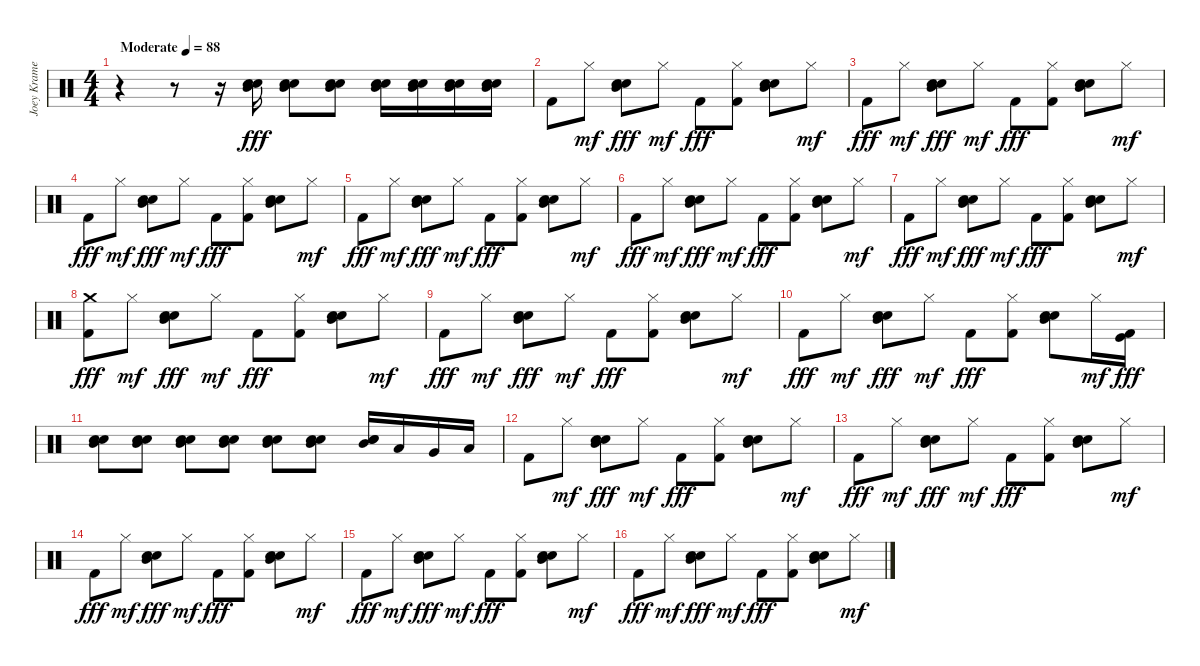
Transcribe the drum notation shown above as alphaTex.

\track ("Joey Kramer" "Joey Krame") {instrument percussion}
\staff {score}
\articulation defaults
\ts (4 4)
\tempo (88 "Moderate")
\clef neutral
\ks c
r.4{dy fff} r.8 r.16 ("Snare (hit) 2" "Electric Snare (hit)" "Mid Tom (hit)").16 ("Snare (hit) 2" "Electric Snare (hit)" "Mid Tom (hit)").8 ("Snare (hit) 2" "Electric Snare (hit)" "Mid Tom (hit)").8 ("Snare (hit) 2" "Electric Snare (hit)" "Mid Tom (hit)").16 ("Snare (hit) 2" "Electric Snare (hit)" "Mid Tom (hit)").16 ("Snare (hit) 2" "Electric Snare (hit)" "Mid Tom (hit)").16 ("Snare (hit) 2" "Electric Snare (hit)" "Mid Tom (hit)").16 |
"Kick (hit) 2".8 "Hi-Hat (closed)".8{dy mf} ("Snare (hit) 2" "Electric Snare (hit)" "Mid Tom (hit)").8{dy fff} "Hi-Hat (closed)".8{dy mf} "Kick (hit) 2".8{dy fff} ("Hi-Hat (closed)" "Kick (hit) 2").8 ("Snare (hit) 2" "Electric Snare (hit)" "Mid Tom (hit)").8 "Hi-Hat (closed)".8{dy mf} |
"Kick (hit) 2".8{dy fff} "Hi-Hat (closed)".8{dy mf} ("Snare (hit) 2" "Electric Snare (hit)" "Mid Tom (hit)").8{dy fff} "Hi-Hat (closed)".8{dy mf} "Kick (hit) 2".8{dy fff} ("Hi-Hat (closed)" "Kick (hit) 2").8 ("Snare (hit) 2" "Electric Snare (hit)" "Mid Tom (hit)").8 "Hi-Hat (closed)".8{dy mf} |
"Kick (hit) 2".8{dy fff} "Hi-Hat (closed)".8{dy mf} ("Snare (hit) 2" "Electric Snare (hit)" "Mid Tom (hit)").8{dy fff} "Hi-Hat (closed)".8{dy mf} "Kick (hit) 2".8{dy fff} ("Hi-Hat (closed)" "Kick (hit) 2").8 ("Snare (hit) 2" "Electric Snare (hit)" "Mid Tom (hit)").8 "Hi-Hat (closed)".8{dy mf} |
"Kick (hit) 2".8{dy fff} "Hi-Hat (closed)".8{dy mf} ("Snare (hit) 2" "Electric Snare (hit)" "Mid Tom (hit)").8{dy fff} "Hi-Hat (closed)".8{dy mf} "Kick (hit) 2".8{dy fff} ("Hi-Hat (closed)" "Kick (hit) 2").8 ("Snare (hit) 2" "Electric Snare (hit)" "Mid Tom (hit)").8 "Hi-Hat (closed)".8{dy mf} |
"Kick (hit) 2".8{dy fff} "Hi-Hat (closed)".8{dy mf} ("Snare (hit) 2" "Electric Snare (hit)" "Mid Tom (hit)").8{dy fff} "Hi-Hat (closed)".8{dy mf} "Kick (hit) 2".8{dy fff} ("Hi-Hat (closed)" "Kick (hit) 2").8 ("Snare (hit) 2" "Electric Snare (hit)" "Mid Tom (hit)").8 "Hi-Hat (closed)".8{dy mf} |
"Kick (hit) 2".8{dy fff} "Hi-Hat (closed)".8{dy mf} ("Snare (hit) 2" "Electric Snare (hit)" "Mid Tom (hit)").8{dy fff} "Hi-Hat (closed)".8{dy mf} "Kick (hit) 2".8{dy fff} ("Hi-Hat (closed)" "Kick (hit) 2").8 ("Snare (hit) 2" "Electric Snare (hit)" "Mid Tom (hit)").8 "Hi-Hat (closed)".8{dy mf} |
("Crash medium (hit)" "Kick (hit) 2").8{dy fff} "Hi-Hat (closed)".8{dy mf} ("Snare (hit) 2" "Electric Snare (hit)" "Mid Tom (hit)").8{dy fff} "Hi-Hat (closed)".8{dy mf} "Kick (hit) 2".8{dy fff} ("Hi-Hat (closed)" "Kick (hit) 2").8 ("Snare (hit) 2" "Electric Snare (hit)" "Mid Tom (hit)").8 "Hi-Hat (closed)".8{dy mf} |
"Kick (hit) 2".8{dy fff} "Hi-Hat (closed)".8{dy mf} ("Snare (hit) 2" "Electric Snare (hit)" "Mid Tom (hit)").8{dy fff} "Hi-Hat (closed)".8{dy mf} "Kick (hit) 2".8{dy fff} ("Hi-Hat (closed)" "Kick (hit) 2").8 ("Snare (hit) 2" "Electric Snare (hit)" "Mid Tom (hit)").8 "Hi-Hat (closed)".8{dy mf} |
"Kick (hit) 2".8{dy fff} "Hi-Hat (closed)".8{dy mf} ("Snare (hit) 2" "Electric Snare (hit)" "Mid Tom (hit)").8{dy fff} "Hi-Hat (closed)".8{dy mf} "Kick (hit) 2".8{dy fff} ("Hi-Hat (closed)" "Kick (hit) 2").8 ("Snare (hit) 2" "Electric Snare (hit)" "Mid Tom (hit)").8 "Hi-Hat (closed)".16{dy mf} ("Kick (hit)" "Kick (hit) 2").16{dy fff} |
("Snare (hit) 2" "Electric Snare (hit)" "Mid Tom (hit)").8 ("Snare (hit) 2" "Electric Snare (hit)" "Mid Tom (hit)").8 ("Snare (hit) 2" "Electric Snare (hit)" "Mid Tom (hit)").8 ("Snare (hit) 2" "Electric Snare (hit)" "Mid Tom (hit)").8 ("Snare (hit) 2" "Electric Snare (hit)" "Mid Tom (hit)").8 ("Snare (hit) 2" "Electric Snare (hit)" "Mid Tom (hit)").8 ("Snare (hit) 2" "Electric Snare (hit)" "Mid Tom (hit)").16 "Low Tom (hit)".16 "Very Low Tom (hit)".16 "Low Floor Tom (hit)".16 |
"Kick (hit) 2".8 "Hi-Hat (closed)".8{dy mf} ("Snare (hit) 2" "Electric Snare (hit)" "Mid Tom (hit)").8{dy fff} "Hi-Hat (closed)".8{dy mf} "Kick (hit) 2".8{dy fff} ("Hi-Hat (closed)" "Kick (hit) 2").8 ("Snare (hit) 2" "Electric Snare (hit)" "Mid Tom (hit)").8 "Hi-Hat (closed)".8{dy mf} |
"Kick (hit) 2".8{dy fff} "Hi-Hat (closed)".8{dy mf} ("Snare (hit) 2" "Electric Snare (hit)" "Mid Tom (hit)").8{dy fff} "Hi-Hat (closed)".8{dy mf} "Kick (hit) 2".8{dy fff} ("Hi-Hat (closed)" "Kick (hit) 2").8 ("Snare (hit) 2" "Electric Snare (hit)" "Mid Tom (hit)").8 "Hi-Hat (closed)".8{dy mf} |
"Kick (hit) 2".8{dy fff} "Hi-Hat (closed)".8{dy mf} ("Snare (hit) 2" "Electric Snare (hit)" "Mid Tom (hit)").8{dy fff} "Hi-Hat (closed)".8{dy mf} "Kick (hit) 2".8{dy fff} ("Hi-Hat (closed)" "Kick (hit) 2").8 ("Snare (hit) 2" "Electric Snare (hit)" "Mid Tom (hit)").8 "Hi-Hat (closed)".8{dy mf} |
"Kick (hit) 2".8{dy fff} "Hi-Hat (closed)".8{dy mf} ("Snare (hit) 2" "Electric Snare (hit)" "Mid Tom (hit)").8{dy fff} "Hi-Hat (closed)".8{dy mf} "Kick (hit) 2".8{dy fff} ("Hi-Hat (closed)" "Kick (hit) 2").8 ("Snare (hit) 2" "Electric Snare (hit)" "Mid Tom (hit)").8 "Hi-Hat (closed)".8{dy mf} |
"Kick (hit) 2".8{dy fff} "Hi-Hat (closed)".8{dy mf} ("Snare (hit) 2" "Electric Snare (hit)" "Mid Tom (hit)").8{dy fff} "Hi-Hat (closed)".8{dy mf} "Kick (hit) 2".8{dy fff} ("Hi-Hat (closed)" "Kick (hit) 2").8 ("Snare (hit) 2" "Electric Snare (hit)" "Mid Tom (hit)").8 "Hi-Hat (closed)".8{dy mf}
